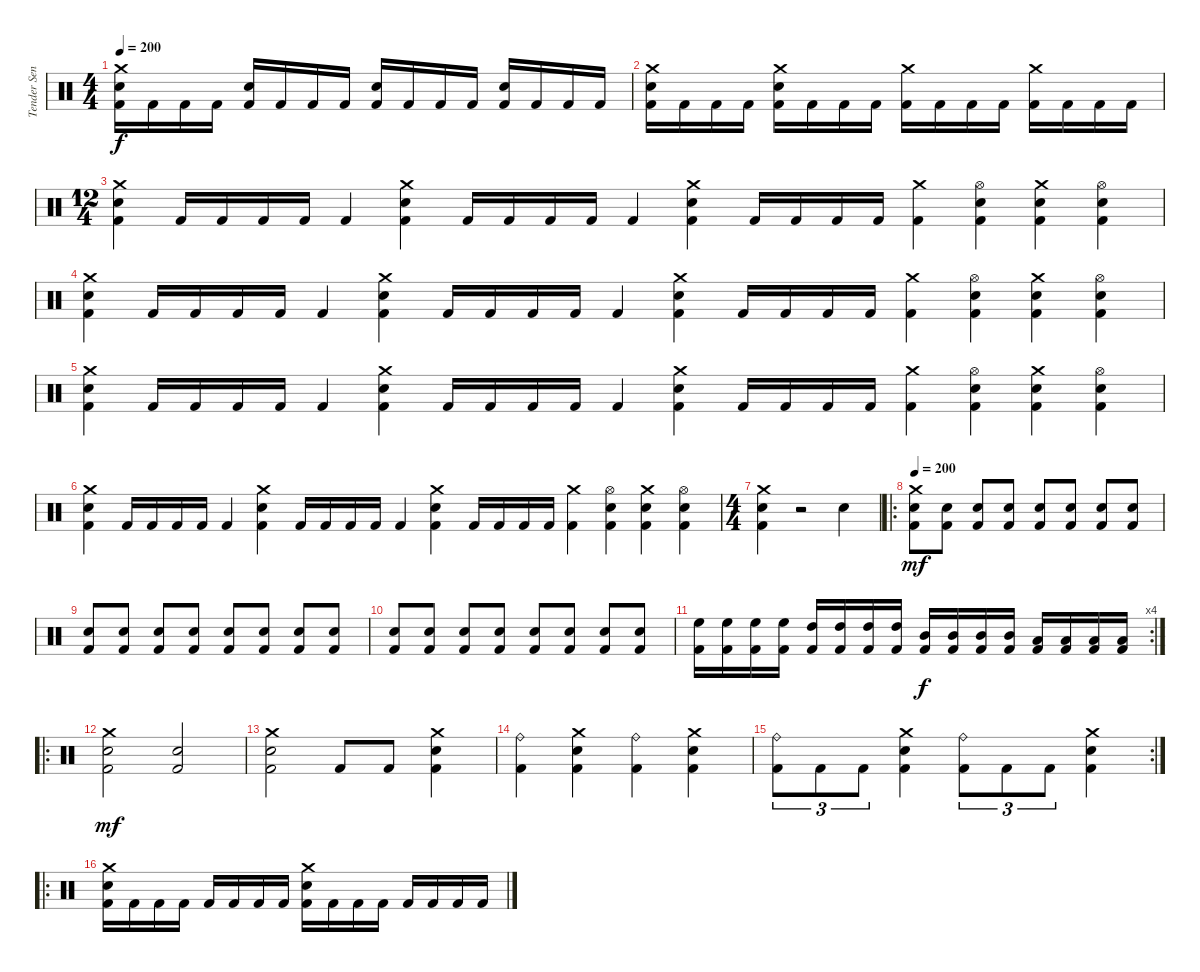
\track ("Tender Sender" "Tender Sen") {instrument percussion}
\staff {score}
\articulation defaults
\ts (4 4)
\tempo 200
\clef neutral
\ks c
("Kick (hit) 2" "Snare (hit) 2" "Crash medium (hit)").16{dy f} "Kick (hit) 2".16 "Kick (hit) 2".16 "Kick (hit) 2".16 ("Kick (hit) 2" "Snare (hit) 2").16 "Kick (hit) 2".16 "Kick (hit) 2".16 "Kick (hit) 2".16 ("Kick (hit) 2" "Snare (hit) 2").16 "Kick (hit) 2".16 "Kick (hit) 2".16 "Kick (hit) 2".16 ("Kick (hit) 2" "Snare (hit) 2").16 "Kick (hit) 2".16 "Kick (hit) 2".16 "Kick (hit) 2".16 |
("Kick (hit) 2" "Snare (hit) 2" "Crash medium (hit)").16 "Kick (hit) 2".16 "Kick (hit) 2".16 "Kick (hit) 2".16 ("Kick (hit) 2" "Snare (hit) 2" "Crash medium (hit)").16 "Kick (hit) 2".16 "Kick (hit) 2".16 "Kick (hit) 2".16 ("Kick (hit) 2" "Crash medium (hit)").16 "Kick (hit) 2".16 "Kick (hit) 2".16 "Kick (hit) 2".16 ("Kick (hit) 2" "Crash medium (hit)").16 "Kick (hit) 2".16 "Kick (hit) 2".16 "Kick (hit) 2".16 |
\ts (12 4)
("Kick (hit) 2" "Snare (hit) 2" "Crash medium (hit)").4 "Kick (hit) 2".16 "Kick (hit) 2".16 "Kick (hit) 2".16 "Kick (hit) 2".16 "Kick (hit) 2".4 ("Kick (hit) 2" "Snare (hit) 2" "Crash medium (hit)").4 "Kick (hit) 2".16 "Kick (hit) 2".16 "Kick (hit) 2".16 "Kick (hit) 2".16 "Kick (hit) 2".4 ("Kick (hit) 2" "Snare (hit) 2" "Crash medium (hit)").4 "Kick (hit) 2".16 "Kick (hit) 2".16 "Kick (hit) 2".16 "Kick (hit) 2".16 ("Kick (hit) 2" "Crash medium (hit)").4 ("Kick (hit) 2" "Snare (hit) 2" "Hi-Hat (open)").4 ("Kick (hit) 2" "Snare (hit) 2" "Crash medium (hit)").4 ("Kick (hit) 2" "Snare (hit) 2" "Hi-Hat (open)").4 |
("Kick (hit) 2" "Snare (hit) 2" "Crash medium (hit)").4 "Kick (hit) 2".16 "Kick (hit) 2".16 "Kick (hit) 2".16 "Kick (hit) 2".16 "Kick (hit) 2".4 ("Kick (hit) 2" "Snare (hit) 2" "Crash medium (hit)").4 "Kick (hit) 2".16 "Kick (hit) 2".16 "Kick (hit) 2".16 "Kick (hit) 2".16 "Kick (hit) 2".4 ("Kick (hit) 2" "Snare (hit) 2" "Crash medium (hit)").4 "Kick (hit) 2".16 "Kick (hit) 2".16 "Kick (hit) 2".16 "Kick (hit) 2".16 ("Kick (hit) 2" "Crash medium (hit)").4 ("Kick (hit) 2" "Snare (hit) 2" "Hi-Hat (open)").4 ("Kick (hit) 2" "Snare (hit) 2" "Crash medium (hit)").4 ("Kick (hit) 2" "Snare (hit) 2" "Hi-Hat (open)").4 |
("Kick (hit) 2" "Snare (hit) 2" "Crash medium (hit)").4 "Kick (hit) 2".16 "Kick (hit) 2".16 "Kick (hit) 2".16 "Kick (hit) 2".16 "Kick (hit) 2".4 ("Kick (hit) 2" "Snare (hit) 2" "Crash medium (hit)").4 "Kick (hit) 2".16 "Kick (hit) 2".16 "Kick (hit) 2".16 "Kick (hit) 2".16 "Kick (hit) 2".4 ("Kick (hit) 2" "Snare (hit) 2" "Crash medium (hit)").4 "Kick (hit) 2".16 "Kick (hit) 2".16 "Kick (hit) 2".16 "Kick (hit) 2".16 ("Kick (hit) 2" "Crash medium (hit)").4 ("Kick (hit) 2" "Snare (hit) 2" "Hi-Hat (open)").4 ("Kick (hit) 2" "Snare (hit) 2" "Crash medium (hit)").4 ("Kick (hit) 2" "Snare (hit) 2" "Hi-Hat (open)").4 |
("Kick (hit) 2" "Snare (hit) 2" "Crash medium (hit)").4 "Kick (hit) 2".16 "Kick (hit) 2".16 "Kick (hit) 2".16 "Kick (hit) 2".16 "Kick (hit) 2".4 ("Kick (hit) 2" "Snare (hit) 2" "Crash medium (hit)").4 "Kick (hit) 2".16 "Kick (hit) 2".16 "Kick (hit) 2".16 "Kick (hit) 2".16 "Kick (hit) 2".4 ("Kick (hit) 2" "Snare (hit) 2" "Crash medium (hit)").4 "Kick (hit) 2".16 "Kick (hit) 2".16 "Kick (hit) 2".16 "Kick (hit) 2".16 ("Kick (hit) 2" "Crash medium (hit)").4 ("Kick (hit) 2" "Snare (hit) 2" "Hi-Hat (open)").4 ("Kick (hit) 2" "Snare (hit) 2" "Crash medium (hit)").4 ("Kick (hit) 2" "Snare (hit) 2" "Hi-Hat (open)").4 |
\ts (4 4)
("Kick (hit) 2" "Snare (hit) 2" "Crash medium (hit)").4 r.2 "Snare (hit) 2".4 |
\ro
\tempo 200
("Kick (hit) 2" "Snare (hit) 2" "Crash medium (hit)").8{dy mf} ("Kick (hit) 2" "Snare (hit) 2").8 ("Kick (hit) 2" "Snare (hit) 2").8 ("Kick (hit) 2" "Snare (hit) 2").8 ("Kick (hit) 2" "Snare (hit) 2").8 ("Kick (hit) 2" "Snare (hit) 2").8 ("Kick (hit) 2" "Snare (hit) 2").8 ("Kick (hit) 2" "Snare (hit) 2").8 |
("Kick (hit) 2" "Snare (hit) 2").8 ("Kick (hit) 2" "Snare (hit) 2").8 ("Kick (hit) 2" "Snare (hit) 2").8 ("Kick (hit) 2" "Snare (hit) 2").8 ("Kick (hit) 2" "Snare (hit) 2").8 ("Kick (hit) 2" "Snare (hit) 2").8 ("Kick (hit) 2" "Snare (hit) 2").8 ("Kick (hit) 2" "Snare (hit) 2").8 |
("Kick (hit) 2" "Snare (hit) 2").8 ("Kick (hit) 2" "Snare (hit) 2").8 ("Kick (hit) 2" "Snare (hit) 2").8 ("Kick (hit) 2" "Snare (hit) 2").8 ("Kick (hit) 2" "Snare (hit) 2").8 ("Kick (hit) 2" "Snare (hit) 2").8 ("Kick (hit) 2" "Snare (hit) 2").8 ("Kick (hit) 2" "Snare (hit) 2").8 |
\rc 4
("Kick (hit) 2" "High Floor Tom (hit)").16 ("Kick (hit) 2" "High Floor Tom (hit)").16 ("Kick (hit) 2" "High Floor Tom (hit)").16 ("Kick (hit) 2" "High Floor Tom (hit)").16 ("Kick (hit) 2" "High Tom (hit)").16 ("Kick (hit) 2" "High Tom (hit)").16 ("Kick (hit) 2" "High Tom (hit)").16 ("Kick (hit) 2" "High Tom (hit)").16 ("Kick (hit) 2" "Mid Tom (hit)").16{dy f} ("Kick (hit) 2" "Mid Tom (hit)").16 ("Kick (hit) 2" "Mid Tom (hit)").16 ("Kick (hit) 2" "Mid Tom (hit)").16 ("Kick (hit) 2" "Low Tom (hit)").16 ("Kick (hit) 2" "Low Tom (hit)").16 ("Kick (hit) 2" "Low Tom (hit)").16 ("Kick (hit) 2" "Low Tom (hit)").16 |
\ro
("Kick (hit) 2" "Snare (hit) 2" "Crash medium (hit)").2{dy mf} ("Kick (hit) 2" "Snare (hit) 2").2 |
("Kick (hit) 2" "Snare (hit) 2" "Crash medium (hit)").2 "Kick (hit) 2".8 "Kick (hit) 2".8 ("Kick (hit) 2" "Snare (hit) 2" "Crash medium (hit)").4 |
("Kick (hit) 2" "Ride (bell)").4 ("Kick (hit) 2" "Snare (hit) 2" "Crash medium (hit)").4 ("Kick (hit) 2" "Ride (bell)").4 ("Kick (hit) 2" "Snare (hit) 2" "Crash medium (hit)").4 |
\rc 2
("Kick (hit) 2" "Ride (bell)").8{tu (3 2)} "Kick (hit) 2".8{tu (3 2)} "Kick (hit) 2".8{tu (3 2)} ("Kick (hit) 2" "Snare (hit) 2" "Crash medium (hit)").4 ("Kick (hit) 2" "Ride (bell)").8{tu (3 2)} "Kick (hit) 2".8{tu (3 2)} "Kick (hit) 2".8{tu (3 2)} ("Kick (hit) 2" "Snare (hit) 2" "Crash medium (hit)").4 |
\ro
("Kick (hit) 2" "Snare (hit) 2" "Crash medium (hit)").16 "Kick (hit) 2".16 "Kick (hit) 2".16 "Kick (hit) 2".16 "Kick (hit) 2".16 "Kick (hit) 2".16 "Kick (hit) 2".16 "Kick (hit) 2".16 ("Kick (hit) 2" "Snare (hit) 2" "Crash medium (hit)").16 "Kick (hit) 2".16 "Kick (hit) 2".16 "Kick (hit) 2".16 "Kick (hit) 2".16 "Kick (hit) 2".16 "Kick (hit) 2".16 "Kick (hit) 2".16
